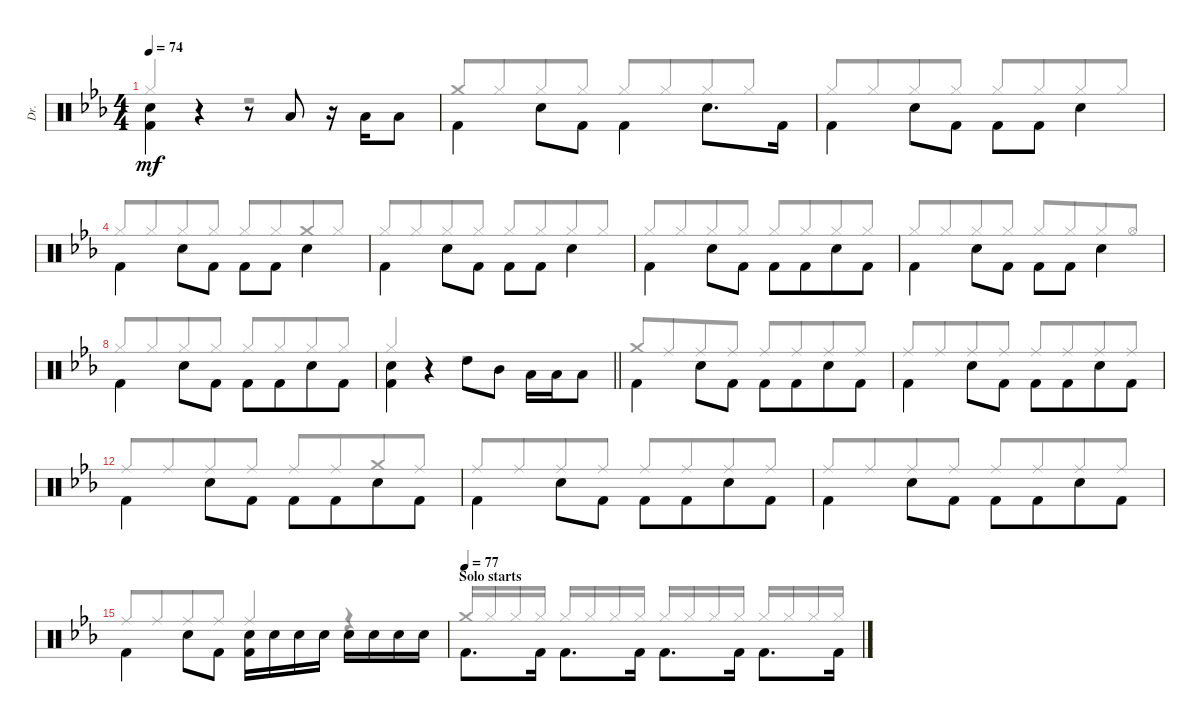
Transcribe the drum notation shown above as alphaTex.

\bracketExtendMode groupsimilarinstruments
\otherSystemsTrackNameOrientation horizontal
\defaultBarNumberDisplay FirstOfSystem
\track ("Drums" "Dr.") {multiBarRest instrument percussion}
\staff {score}
\articulation defaults
\voice
\ts (4 4)
\tempo 74
\clef neutral
\ks eb
("Kick (hit) 2"{acc forcenatural} "Snare (hit) 2"{acc forcenatural}).4{dy mf beam Down} r.4{beam Down} r.8{beam Up} "Low Tom (hit)"{acc forcenatural}.8{beam Down} r.16{beam Down} "Low Tom (hit)"{acc forcenatural}.16{beam Down} "Low Tom (hit)"{acc forcenatural}.8{beam Down} |
"Kick (hit) 2"{acc forcenatural}.4{beam Down} "Snare (hit) 2"{acc forcenatural}.8{beam Down} "Kick (hit) 2"{acc forcenatural}.8{beam Down} "Kick (hit) 2"{acc forcenatural}.4{beam Down} "Snare (hit) 2"{acc forcenatural}.8{d beam Down} "Kick (hit) 2"{acc forcenatural}.16{beam Down} |
"Kick (hit) 2"{acc forcenatural}.4{beam Down} "Snare (hit) 2"{acc forcenatural}.8{beam Down} "Kick (hit) 2"{acc forcenatural}.8{beam Down} "Kick (hit) 2"{acc forcenatural}.8{beam Down} "Kick (hit) 2"{acc forcenatural}.8{beam Down} "Snare (hit) 2"{acc forcenatural}.4{beam Down} |
"Kick (hit) 2"{acc forcenatural}.4{beam Down} "Snare (hit) 2"{acc forcenatural}.8{beam Down} "Kick (hit) 2"{acc forcenatural}.8{beam Down} "Kick (hit) 2"{acc forcenatural}.8{beam Down} "Kick (hit) 2"{acc forcenatural}.8{beam Down} "Snare (hit) 2"{acc forcenatural}.4{beam Down} |
"Kick (hit) 2"{acc forcenatural}.4{beam Down} "Snare (hit) 2"{acc forcenatural}.8{beam Down} "Kick (hit) 2"{acc forcenatural}.8{beam Down} "Kick (hit) 2"{acc forcenatural}.8{beam Down} "Kick (hit) 2"{acc forcenatural}.8{beam Down} "Snare (hit) 2"{acc forcenatural}.4{beam Down} |
"Kick (hit) 2"{acc forcenatural}.4{beam Down} "Snare (hit) 2"{acc forcenatural}.8{beam Down} "Kick (hit) 2"{acc forcenatural}.8{beam Down} "Kick (hit) 2"{acc forcenatural}.8{beam Down} "Kick (hit) 2"{acc forcenatural}.8{beam Down beam merge} "Snare (hit) 2"{acc forcenatural}.8{beam Down} "Kick (hit) 2"{acc forcenatural}.8{beam Down} |
"Kick (hit) 2"{acc forcenatural}.4{beam Down} "Snare (hit) 2"{acc forcenatural}.8{beam Down} "Kick (hit) 2"{acc forcenatural}.8{beam Down} "Kick (hit) 2"{acc forcenatural}.8{beam Down} "Kick (hit) 2"{acc forcenatural}.8{beam Down} "Snare (hit) 2"{acc forcenatural}.4{beam Down} |
"Kick (hit) 2"{acc forcenatural}.4{beam Down} "Snare (hit) 2"{acc forcenatural}.8{beam Down} "Kick (hit) 2"{acc forcenatural}.8{beam Down} "Kick (hit) 2"{acc forcenatural}.8{beam Down} "Kick (hit) 2"{acc forcenatural}.8{beam Down beam merge} "Snare (hit) 2"{acc forcenatural}.8{beam Down} "Kick (hit) 2"{acc forcenatural}.8{beam Down} |
\barLineRight lightlight
("Snare (hit) 2"{acc forcenatural} "Kick (hit) 2"{acc forcenatural}).4{beam Down} r.4{beam Down} "High Tom (hit)"{acc forcenatural}.8{beam Down} "Mid Tom (hit)"{acc forcenatural}.8{beam Down} "Low Tom (hit)"{acc forcenatural}.16{beam Down} "Low Tom (hit)"{acc forcenatural}.16{beam Down} "Low Tom (hit)"{acc forcenatural}.8{beam Down} |
"Kick (hit) 2"{acc forcenatural}.4{beam Down} "Snare (hit) 2"{acc forcenatural}.8{beam Down} "Kick (hit) 2"{acc forcenatural}.8{beam Down} "Kick (hit) 2"{acc forcenatural}.8{beam Down} "Kick (hit) 2"{acc forcenatural}.8{beam Down beam merge} "Snare (hit) 2"{acc forcenatural}.8{beam Down} "Kick (hit) 2"{acc forcenatural}.8{beam Down} |
"Kick (hit) 2"{acc forcenatural}.4{beam Down} "Snare (hit) 2"{acc forcenatural}.8{beam Down} "Kick (hit) 2"{acc forcenatural}.8{beam Down} "Kick (hit) 2"{acc forcenatural}.8{beam Down} "Kick (hit) 2"{acc forcenatural}.8{beam Down beam merge} "Snare (hit) 2"{acc forcenatural}.8{beam Down} "Kick (hit) 2"{acc forcenatural}.8{beam Down} |
"Kick (hit) 2"{acc forcenatural}.4{beam Down} "Snare (hit) 2"{acc forcenatural}.8{beam Down} "Kick (hit) 2"{acc forcenatural}.8{beam Down} "Kick (hit) 2"{acc forcenatural}.8{beam Down} "Kick (hit) 2"{acc forcenatural}.8{beam Down beam merge} "Snare (hit) 2"{acc forcenatural}.8{beam Down} "Kick (hit) 2"{acc forcenatural}.8{beam Down} |
"Kick (hit) 2"{acc forcenatural}.4{beam Down} "Snare (hit) 2"{acc forcenatural}.8{beam Down} "Kick (hit) 2"{acc forcenatural}.8{beam Down} "Kick (hit) 2"{acc forcenatural}.8{beam Down} "Kick (hit) 2"{acc forcenatural}.8{beam Down beam merge} "Snare (hit) 2"{acc forcenatural}.8{beam Down} "Kick (hit) 2"{acc forcenatural}.8{beam Down} |
"Kick (hit) 2"{acc forcenatural}.4{beam Down} "Snare (hit) 2"{acc forcenatural}.8{beam Down} "Kick (hit) 2"{acc forcenatural}.8{beam Down} "Kick (hit) 2"{acc forcenatural}.8{beam Down} "Kick (hit) 2"{acc forcenatural}.8{beam Down beam merge} "Snare (hit) 2"{acc forcenatural}.8{beam Down} "Kick (hit) 2"{acc forcenatural}.8{beam Down} |
"Kick (hit) 2"{acc forcenatural}.4{beam Down} "Snare (hit) 2"{acc forcenatural}.8{beam Down} "Kick (hit) 2"{acc forcenatural}.8{beam Down} ("Kick (hit) 2"{acc forcenatural} "Snare (hit) 2"{acc forcenatural}).16{beam Down} "Snare (hit) 2"{acc forcenatural}.16{beam Down} "Snare (hit) 2"{acc forcenatural}.16{beam Down} "Snare (hit) 2"{acc forcenatural}.16{beam Down} "Snare (hit) 2"{acc forcenatural}.16{beam Down} "Snare (hit) 2"{acc forcenatural}.16{beam Down} "Snare (hit) 2"{acc forcenatural}.16{beam Down} "Snare (hit) 2"{acc forcenatural}.16{beam Down} |
\section ("" "Solo starts")
\tempo (77)
"Kick (hit) 2"{acc forcenatural}.8{d beam Down} "Kick (hit) 2"{acc forcenatural}.16{beam Down} "Kick (hit) 2"{acc forcenatural}.8{d beam Down} "Kick (hit) 2"{acc forcenatural}.16{beam Down} "Kick (hit) 2"{acc forcenatural}.8{d beam Down} "Kick (hit) 2"{acc forcenatural}.16{beam Down} "Kick (hit) 2"{acc forcenatural}.8{d beam Down} "Kick (hit) 2"{acc forcenatural}.16{beam Down}
\voice
\clef neutral
\ottava regular
\simile none
\ks eb "Hi-Hat (closed)"{acc forcenatural}.4{dy mf beam Up}
r.4{beam Down} r.2{beam Down} |
"Crash medium (hit)"{acc forcenatural}.8{beam Up} "Hi-Hat (closed)"{acc forcenatural}.8{beam Up beam merge} "Hi-Hat (closed)"{acc forcenatural}.8{beam Up} "Hi-Hat (closed)"{acc forcenatural}.8{beam Up} "Hi-Hat (closed)"{acc forcenatural}.8{beam Up} "Hi-Hat (closed)"{acc forcenatural}.8{beam Up beam merge} "Hi-Hat (closed)"{acc forcenatural}.8{beam Up beam merge} "Hi-Hat (closed)"{acc forcenatural}.8{beam Up} |
"Hi-Hat (closed)"{acc forcenatural}.8{beam Up} "Hi-Hat (closed)"{acc forcenatural}.8{beam Up beam merge} "Hi-Hat (closed)"{acc forcenatural}.8{beam Up} "Hi-Hat (closed)"{acc forcenatural}.8{beam Up} "Hi-Hat (closed)"{acc forcenatural}.8{beam Up} "Hi-Hat (closed)"{acc forcenatural}.8{beam Up beam merge} "Hi-Hat (closed)"{acc forcenatural}.8{beam Up} "Hi-Hat (closed)"{acc forcenatural}.8{beam Up} |
"Hi-Hat (closed)"{acc forcenatural}.8{beam Up} "Hi-Hat (closed)"{acc forcenatural}.8{beam Up beam merge} "Hi-Hat (closed)"{acc forcenatural}.8{beam Up beam merge} "Hi-Hat (closed)"{acc forcenatural}.8{beam Up} "Hi-Hat (closed)"{acc forcenatural}.8{beam Up} "Hi-Hat (closed)"{acc forcenatural}.8{beam Up beam merge} "Crash medium (hit)"{acc forcenatural}.8{beam Up} "Hi-Hat (closed)"{acc forcenatural}.8{beam Up} |
"Hi-Hat (closed)"{acc forcenatural}.8{beam Up} "Hi-Hat (closed)"{acc forcenatural}.8{beam Up beam merge} "Hi-Hat (closed)"{acc forcenatural}.8{beam Up} "Hi-Hat (closed)"{acc forcenatural}.8{beam Up} "Hi-Hat (closed)"{acc forcenatural}.8{beam Up} "Hi-Hat (closed)"{acc forcenatural}.8{beam Up beam merge} "Hi-Hat (closed)"{acc forcenatural}.8{beam Up beam merge} "Hi-Hat (closed)"{acc forcenatural}.8{beam Up} |
"Hi-Hat (closed)"{acc forcenatural}.8{beam Up} "Hi-Hat (closed)"{acc forcenatural}.8{beam Up beam merge} "Hi-Hat (closed)"{acc forcenatural}.8{beam Up beam merge} "Hi-Hat (closed)"{acc forcenatural}.8{beam Up} "Hi-Hat (closed)"{acc forcenatural}.8{beam Up} "Hi-Hat (closed)"{acc forcenatural}.8{beam Up beam merge} "Hi-Hat (closed)"{acc forcenatural}.8{beam Up} "Hi-Hat (closed)"{acc forcenatural}.8{beam Up} |
"Hi-Hat (closed)"{acc forcenatural}.8{beam Up} "Hi-Hat (closed)"{acc forcenatural}.8{beam Up beam merge} "Hi-Hat (closed)"{acc forcenatural}.8{beam Up} "Hi-Hat (closed)"{acc forcenatural}.8{beam Up} "Hi-Hat (closed)"{acc forcenatural}.8{beam Up} "Hi-Hat (closed)"{acc forcenatural}.8{beam Up beam merge} "Hi-Hat (closed)"{acc forcenatural}.8{beam Up} "Hi-Hat (open)"{acc forcenatural}.8{beam Up} |
"Hi-Hat (closed)"{acc forcenatural}.8{beam Up} "Hi-Hat (closed)"{acc forcenatural}.8{beam Up beam merge} "Hi-Hat (closed)"{acc forcenatural}.8{beam Up} "Hi-Hat (closed)"{acc forcenatural}.8{beam Up} "Hi-Hat (closed)"{acc forcenatural}.8{beam Up beam merge} "Hi-Hat (closed)"{acc forcenatural}.8{beam Up beam merge} "Hi-Hat (closed)"{acc forcenatural}.8{beam Up} "Hi-Hat (closed)"{acc forcenatural}.8{beam Up} |
\barLineRight lightlight "Hi-Hat (closed)"{acc forcenatural}.4{beam Up}
r.4{beam Down} r.2{beam Down} |
"Crash medium (hit)"{acc forcenatural}.8{beam Up} "Ride (middle)"{acc forcenatural}.8{beam Up beam merge} "Ride (middle)"{acc forcenatural}.8{beam Up} "Ride (middle)"{acc forcenatural}.8{beam Up} "Ride (middle)"{acc forcenatural}.8{beam Up} "Ride (middle)"{acc forcenatural}.8{beam Up beam merge} "Ride (middle)"{acc forcenatural}.8{beam Up} "Ride (middle)"{acc forcenatural}.8{beam Up} |
"Ride (middle)"{acc forcenatural}.8{beam Up} "Ride (middle)"{acc forcenatural}.8{beam Up beam merge} "Ride (middle)"{acc forcenatural}.8{beam Up} "Ride (middle)"{acc forcenatural}.8{beam Up} "Ride (middle)"{acc forcenatural}.8{beam Up} "Ride (middle)"{acc forcenatural}.8{beam Up beam merge} "Ride (middle)"{acc forcenatural}.8{beam Up} "Ride (middle)"{acc forcenatural}.8{beam Up} |
"Ride (middle)"{acc forcenatural}.8{beam Up beam merge} "Ride (middle)"{acc forcenatural}.8{beam Up beam merge} "Ride (middle)"{acc forcenatural}.8{beam Up} "Ride (middle)"{acc forcenatural}.8{beam Up} "Ride (middle)"{acc forcenatural}.8{beam Up} "Ride (middle)"{acc forcenatural}.8{beam Up beam merge} "Crash medium (hit)"{acc forcenatural}.8{beam Up beam merge} "Ride (middle)"{acc forcenatural}.8{beam Up} |
"Ride (middle)"{acc forcenatural}.8{beam Up} "Ride (middle)"{acc forcenatural}.8{beam Up beam merge} "Ride (middle)"{acc forcenatural}.8{beam Up} "Ride (middle)"{acc forcenatural}.8{beam Up} "Ride (middle)"{acc forcenatural}.8{beam Up} "Ride (middle)"{acc forcenatural}.8{beam Up beam merge} "Ride (middle)"{acc forcenatural}.8{beam Up} "Ride (middle)"{acc forcenatural}.8{beam Up} |
"Ride (middle)"{acc forcenatural}.8{beam Up} "Ride (middle)"{acc forcenatural}.8{beam Up beam merge} "Ride (middle)"{acc forcenatural}.8{beam Up} "Ride (middle)"{acc forcenatural}.8{beam Up} "Ride (middle)"{acc forcenatural}.8{beam Up} "Ride (middle)"{acc forcenatural}.8{beam Up beam merge} "Ride (middle)"{acc forcenatural}.8{beam Up} "Ride (middle)"{acc forcenatural}.8{beam Up} |
"Ride (middle)"{acc forcenatural}.8{beam Up} "Ride (middle)"{acc forcenatural}.8{beam Up beam merge} "Ride (middle)"{acc forcenatural}.8{beam Up} "Ride (middle)"{acc forcenatural}.8{beam Up} "Ride (middle)"{acc forcenatural}.4{beam Up} r.4{beam Down} |
"Crash medium (hit)"{acc forcenatural}.16{beam Up} "Hi-Hat (closed)"{acc forcenatural}.16{beam Up} "Hi-Hat (closed)"{acc forcenatural}.16{beam Up} "Hi-Hat (closed)"{acc forcenatural}.16{beam Up} "Hi-Hat (closed)"{acc forcenatural}.16{beam Up} "Hi-Hat (closed)"{acc forcenatural}.16{beam Up} "Hi-Hat (closed)"{acc forcenatural}.16{beam Up} "Hi-Hat (closed)"{acc forcenatural}.16{beam Up} "Hi-Hat (closed)"{acc forcenatural}.16{beam Up} "Hi-Hat (closed)"{acc forcenatural}.16{beam Up} "Hi-Hat (closed)"{acc forcenatural}.16{beam Up} "Hi-Hat (closed)"{acc forcenatural}.16{beam Up} "Hi-Hat (closed)"{acc forcenatural}.16{beam Up} "Hi-Hat (closed)"{acc forcenatural}.16{beam Up} "Hi-Hat (closed)"{acc forcenatural}.16{beam Up} "Hi-Hat (closed)"{acc forcenatural}.16{beam Up}
